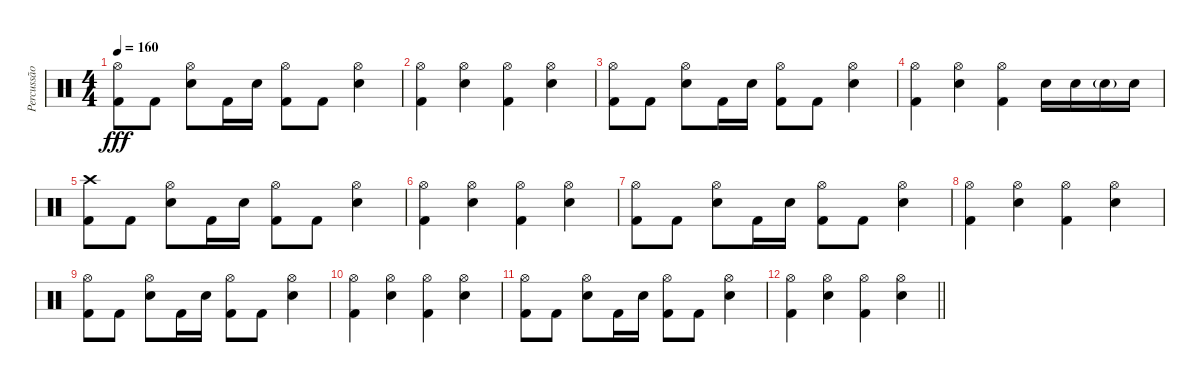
\track ("Percussão" "Percussão") {instrument percussion}
\staff {score}
\articulation defaults
\ts (4 4)
\tempo 160
\clef neutral
\ks c
("Hi-Hat (open)" "Kick (hit) 2").8{dy fff} "Kick (hit) 2".8 ("Hi-Hat (open)" "Electric Snare (hit)").8 "Kick (hit) 2".16 "Electric Snare (hit)".16 ("Hi-Hat (open)" "Kick (hit) 2").8 "Kick (hit) 2".8 ("Hi-Hat (open)" "Electric Snare (hit)").4 |
("Hi-Hat (open)" "Kick (hit) 2").4 ("Hi-Hat (open)" "Electric Snare (hit)").4 ("Hi-Hat (open)" "Kick (hit) 2").4 ("Hi-Hat (open)" "Electric Snare (hit)").4 |
("Hi-Hat (open)" "Kick (hit) 2").8 "Kick (hit) 2".8 ("Hi-Hat (open)" "Electric Snare (hit)").8 "Kick (hit) 2".16 "Electric Snare (hit)".16 ("Hi-Hat (open)" "Kick (hit) 2").8 "Kick (hit) 2".8 ("Hi-Hat (open)" "Electric Snare (hit)").4 |
("Hi-Hat (open)" "Kick (hit) 2").4 ("Hi-Hat (open)" "Electric Snare (hit)").4 ("Hi-Hat (open)" "Kick (hit) 2").4 "Electric Snare (hit)".16 "Electric Snare (hit)".16 "Electric Snare (hit)"{g}.16 "Electric Snare (hit)".16 |
("Crash high (hit)" "Kick (hit) 2").8 "Kick (hit) 2".8 ("Hi-Hat (open)" "Electric Snare (hit)").8 "Kick (hit) 2".16 "Electric Snare (hit)".16 ("Hi-Hat (open)" "Kick (hit) 2").8 "Kick (hit) 2".8 ("Hi-Hat (open)" "Electric Snare (hit)").4 |
("Hi-Hat (open)" "Kick (hit) 2").4 ("Hi-Hat (open)" "Electric Snare (hit)").4 ("Hi-Hat (open)" "Kick (hit) 2").4 ("Hi-Hat (open)" "Electric Snare (hit)").4 |
("Hi-Hat (open)" "Kick (hit) 2").8 "Kick (hit) 2".8 ("Hi-Hat (open)" "Electric Snare (hit)").8 "Kick (hit) 2".16 "Electric Snare (hit)".16 ("Hi-Hat (open)" "Kick (hit) 2").8 "Kick (hit) 2".8 ("Hi-Hat (open)" "Electric Snare (hit)").4 |
("Hi-Hat (open)" "Kick (hit) 2").4 ("Hi-Hat (open)" "Electric Snare (hit)").4 ("Hi-Hat (open)" "Kick (hit) 2").4 ("Hi-Hat (open)" "Electric Snare (hit)").4 |
("Hi-Hat (open)" "Kick (hit) 2").8 "Kick (hit) 2".8 ("Hi-Hat (open)" "Electric Snare (hit)").8 "Kick (hit) 2".16 "Electric Snare (hit)".16 ("Hi-Hat (open)" "Kick (hit) 2").8 "Kick (hit) 2".8 ("Hi-Hat (open)" "Electric Snare (hit)").4 |
("Hi-Hat (open)" "Kick (hit) 2").4 ("Hi-Hat (open)" "Electric Snare (hit)").4 ("Hi-Hat (open)" "Kick (hit) 2").4 ("Hi-Hat (open)" "Electric Snare (hit)").4 |
("Hi-Hat (open)" "Kick (hit) 2").8 "Kick (hit) 2".8 ("Hi-Hat (open)" "Electric Snare (hit)").8 "Kick (hit) 2".16 "Electric Snare (hit)".16 ("Hi-Hat (open)" "Kick (hit) 2").8 "Kick (hit) 2".8 ("Hi-Hat (open)" "Electric Snare (hit)").4 |
\barLineRight lightlight
("Hi-Hat (open)" "Kick (hit) 2").4 ("Hi-Hat (open)" "Electric Snare (hit)").4 ("Hi-Hat (open)" "Kick (hit) 2").4 ("Hi-Hat (open)" "Electric Snare (hit)").4
